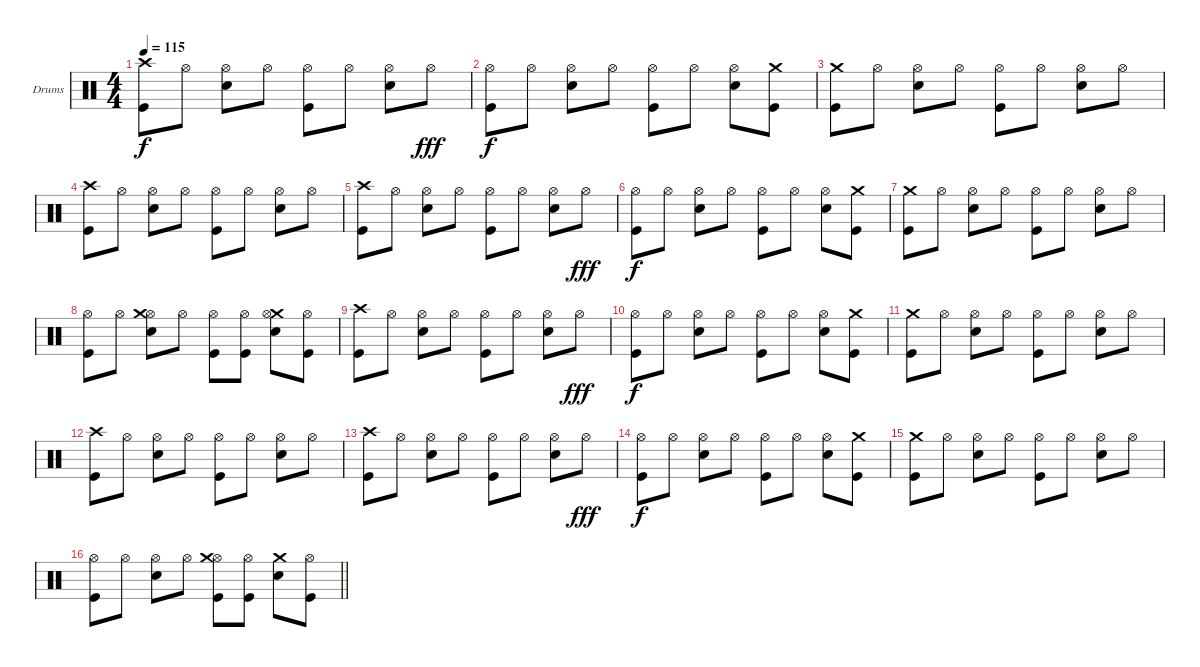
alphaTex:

\bracketExtendMode groupsimilarinstruments
\firstSystemTrackNameOrientation horizontal
\otherSystemsTrackNameOrientation horizontal
\track ("Drumkit" "Drums") {instrument percussion}
\staff {score}
\articulation defaults
\ts (4 4)
\tempo 115
\clef neutral
\ks c
("Crash high (hit)" "Kick (hit)").8{dy f} "Hi-Hat (open)".8 ("Hi-Hat (open)" "Snare (hit) 2").8 "Hi-Hat (open)".8 ("Hi-Hat (open)" "Kick (hit)").8 "Hi-Hat (open)".8 ("Hi-Hat (open)" "Snare (hit) 2").8 "Hi-Hat (open)".8{dy fff} |
("Hi-Hat (open)" "Kick (hit)").8{dy f} "Hi-Hat (open)".8 ("Hi-Hat (open)" "Snare (hit) 2").8 "Hi-Hat (open)".8 ("Hi-Hat (open)" "Kick (hit)").8 "Hi-Hat (open)".8 ("Hi-Hat (open)" "Snare (hit) 2").8 ("Crash medium (hit)" "Kick (hit)").8 |
("Crash medium (hit)" "Kick (hit)").8 "Hi-Hat (open)".8 ("Hi-Hat (open)" "Snare (hit) 2").8 "Hi-Hat (open)".8 ("Hi-Hat (open)" "Kick (hit)").8 "Hi-Hat (open)".8 ("Hi-Hat (open)" "Snare (hit) 2").8 "Hi-Hat (open)".8 |
("Crash high (hit)" "Kick (hit)").8 "Hi-Hat (open)".8 ("Hi-Hat (open)" "Snare (hit) 2").8 "Hi-Hat (open)".8 ("Hi-Hat (open)" "Kick (hit)").8 "Hi-Hat (open)".8 ("Hi-Hat (open)" "Snare (hit) 2").8 "Hi-Hat (open)".8 |
("Crash high (hit)" "Kick (hit)").8 "Hi-Hat (open)".8 ("Hi-Hat (open)" "Snare (hit) 2").8 "Hi-Hat (open)".8 ("Hi-Hat (open)" "Kick (hit)").8 "Hi-Hat (open)".8 ("Hi-Hat (open)" "Snare (hit) 2").8 "Hi-Hat (open)".8{dy fff} |
("Hi-Hat (open)" "Kick (hit)").8{dy f} "Hi-Hat (open)".8 ("Hi-Hat (open)" "Snare (hit) 2").8 "Hi-Hat (open)".8 ("Hi-Hat (open)" "Kick (hit)").8 "Hi-Hat (open)".8 ("Hi-Hat (open)" "Snare (hit) 2").8 ("Crash medium (hit)" "Kick (hit)").8 |
("Crash medium (hit)" "Kick (hit)").8 "Hi-Hat (open)".8 ("Hi-Hat (open)" "Snare (hit) 2").8 "Hi-Hat (open)".8 ("Hi-Hat (open)" "Kick (hit)").8 "Hi-Hat (open)".8 ("Hi-Hat (open)" "Snare (hit) 2").8 "Hi-Hat (open)".8 |
("Hi-Hat (open)" "Kick (hit)").8 "Hi-Hat (open)".8 ("Hi-Hat (open)" "Crash medium (hit)" "Snare (hit) 2").8 "Hi-Hat (open)".8 ("Hi-Hat (open)" "Kick (hit)").8 ("Hi-Hat (open)" "Kick (hit)").8 ("Crash medium (hit)" "Hi-Hat (open)" "Snare (hit) 2").8 ("Hi-Hat (open)" "Kick (hit)").8 |
("Crash high (hit)" "Kick (hit)").8 "Hi-Hat (open)".8 ("Hi-Hat (open)" "Snare (hit) 2").8 "Hi-Hat (open)".8 ("Hi-Hat (open)" "Kick (hit)").8 "Hi-Hat (open)".8 ("Hi-Hat (open)" "Snare (hit) 2").8 "Hi-Hat (open)".8{dy fff} |
("Hi-Hat (open)" "Kick (hit)").8{dy f} "Hi-Hat (open)".8 ("Hi-Hat (open)" "Snare (hit) 2").8 "Hi-Hat (open)".8 ("Hi-Hat (open)" "Kick (hit)").8 "Hi-Hat (open)".8 ("Hi-Hat (open)" "Snare (hit) 2").8 ("Crash medium (hit)" "Kick (hit)").8 |
("Crash medium (hit)" "Kick (hit)").8 "Hi-Hat (open)".8 ("Hi-Hat (open)" "Snare (hit) 2").8 "Hi-Hat (open)".8 ("Hi-Hat (open)" "Kick (hit)").8 "Hi-Hat (open)".8 ("Hi-Hat (open)" "Snare (hit) 2").8 "Hi-Hat (open)".8 |
("Crash high (hit)" "Kick (hit)").8 "Hi-Hat (open)".8 ("Hi-Hat (open)" "Snare (hit) 2").8 "Hi-Hat (open)".8 ("Hi-Hat (open)" "Kick (hit)").8 "Hi-Hat (open)".8 ("Hi-Hat (open)" "Snare (hit) 2").8 "Hi-Hat (open)".8 |
("Crash high (hit)" "Kick (hit)").8 "Hi-Hat (open)".8 ("Hi-Hat (open)" "Snare (hit) 2").8 "Hi-Hat (open)".8 ("Hi-Hat (open)" "Kick (hit)").8 "Hi-Hat (open)".8 ("Hi-Hat (open)" "Snare (hit) 2").8 "Hi-Hat (open)".8{dy fff} |
("Hi-Hat (open)" "Kick (hit)").8{dy f} "Hi-Hat (open)".8 ("Hi-Hat (open)" "Snare (hit) 2").8 "Hi-Hat (open)".8 ("Hi-Hat (open)" "Kick (hit)").8 "Hi-Hat (open)".8 ("Hi-Hat (open)" "Snare (hit) 2").8 ("Crash medium (hit)" "Kick (hit)").8 |
("Crash medium (hit)" "Kick (hit)").8 "Hi-Hat (open)".8 ("Hi-Hat (open)" "Snare (hit) 2").8 "Hi-Hat (open)".8 ("Hi-Hat (open)" "Kick (hit)").8 "Hi-Hat (open)".8 ("Hi-Hat (open)" "Snare (hit) 2").8 "Hi-Hat (open)".8 |
\barLineRight lightlight
("Hi-Hat (open)" "Kick (hit)").8 "Hi-Hat (open)".8 ("Hi-Hat (open)" "Snare (hit) 2").8 "Hi-Hat (open)".8 ("Hi-Hat (open)" "Crash medium (hit)" "Kick (hit)").8 ("Hi-Hat (open)" "Kick (hit)").8 ("Crash medium (hit)" "Snare (hit) 2").8 ("Hi-Hat (open)" "Kick (hit)").8
